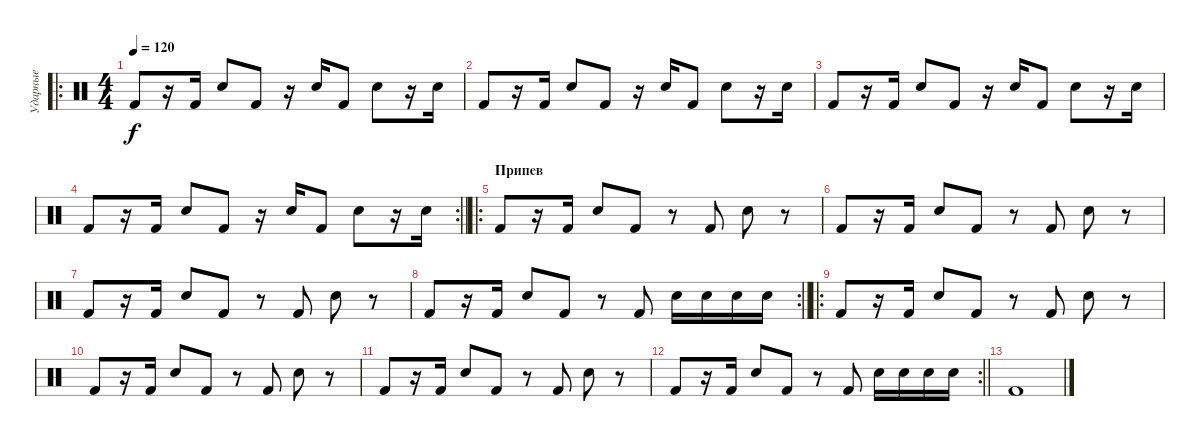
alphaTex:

\track ("Ударные" "Ударные") {instrument percussion}
\staff {score}
\articulation defaults
\ro
\ts (4 4)
\tempo 120
\clef neutral
\ks c "Kick (hit) 2".8{dy f}
r.16 "Kick (hit) 2".16 "Snare (hit) 2".8 "Kick (hit) 2".8 r.16 "Snare (hit) 2".16 "Kick (hit) 2".8 "Snare (hit) 2".8 r.16 "Snare (hit) 2".16 |
"Kick (hit) 2".8 r.16 "Kick (hit) 2".16 "Snare (hit) 2".8 "Kick (hit) 2".8 r.16 "Snare (hit) 2".16 "Kick (hit) 2".8 "Snare (hit) 2".8 r.16 "Snare (hit) 2".16 |
"Kick (hit) 2".8 r.16 "Kick (hit) 2".16 "Snare (hit) 2".8 "Kick (hit) 2".8 r.16 "Snare (hit) 2".16 "Kick (hit) 2".8 "Snare (hit) 2".8 r.16 "Snare (hit) 2".16 |
\rc 2
\barLineRight lightlight "Kick (hit) 2".8
r.16 "Kick (hit) 2".16 "Snare (hit) 2".8 "Kick (hit) 2".8 r.16 "Snare (hit) 2".16 "Kick (hit) 2".8 "Snare (hit) 2".8 r.16 "Snare (hit) 2".16 |
\ro
\section ("" "Припев")
"Kick (hit) 2".8 r.16 "Kick (hit) 2".16 "Snare (hit) 2".8 "Kick (hit) 2".8 r.8 "Kick (hit) 2".8 "Snare (hit) 2".8 r.8 |
"Kick (hit) 2".8 r.16 "Kick (hit) 2".16 "Snare (hit) 2".8 "Kick (hit) 2".8 r.8 "Kick (hit) 2".8 "Snare (hit) 2".8 r.8 |
"Kick (hit) 2".8 r.16 "Kick (hit) 2".16 "Snare (hit) 2".8 "Kick (hit) 2".8 r.8 "Kick (hit) 2".8 "Snare (hit) 2".8 r.8 |
\rc 2
\barLineRight lightlight "Kick (hit) 2".8
r.16 "Kick (hit) 2".16 "Snare (hit) 2".8 "Kick (hit) 2".8 r.8 "Kick (hit) 2".8 "Snare (hit) 2".16 "Snare (hit) 2".16 "Snare (hit) 2".16 "Snare (hit) 2".16 |
\ro "Kick (hit) 2".8
r.16 "Kick (hit) 2".16 "Snare (hit) 2".8 "Kick (hit) 2".8 r.8 "Kick (hit) 2".8 "Snare (hit) 2".8 r.8 |
"Kick (hit) 2".8 r.16 "Kick (hit) 2".16 "Snare (hit) 2".8 "Kick (hit) 2".8 r.8 "Kick (hit) 2".8 "Snare (hit) 2".8 r.8 |
"Kick (hit) 2".8 r.16 "Kick (hit) 2".16 "Snare (hit) 2".8 "Kick (hit) 2".8 r.8 "Kick (hit) 2".8 "Snare (hit) 2".8 r.8 |
\rc 2
\barLineRight lightlight "Kick (hit) 2".8
r.16 "Kick (hit) 2".16 "Snare (hit) 2".8 "Kick (hit) 2".8 r.8 "Kick (hit) 2".8 "Snare (hit) 2".16 "Snare (hit) 2".16 "Snare (hit) 2".16 "Snare (hit) 2".16 |
"Kick (hit) 2".1
